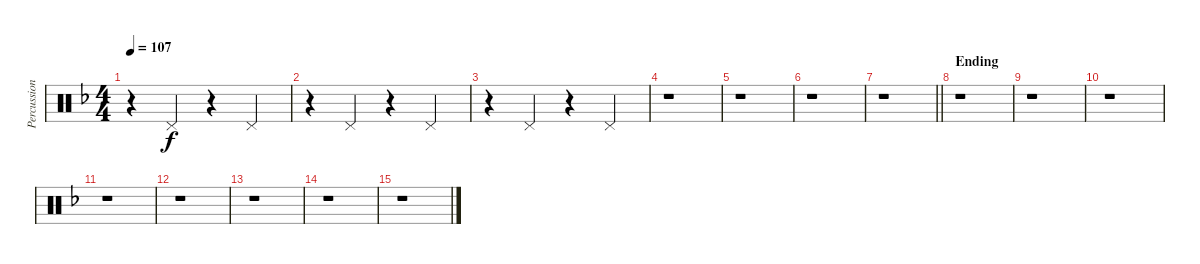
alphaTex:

\track ("Percussion" "Percussion") {instrument percussion}
\staff {score}
\articulation defaults
\ts (4 4)
\tempo 107
\clef neutral
\ks dminor
r.4{dy f} "Pedal Hi-Hat (hit)".4 r.4 "Pedal Hi-Hat (hit)".4 |
r.4 "Pedal Hi-Hat (hit)".4 r.4 "Pedal Hi-Hat (hit)".4 |
r.4 "Pedal Hi-Hat (hit)".4 r.4 "Pedal Hi-Hat (hit)".4 |
r.1 |
r.1 |
r.1 |
\barLineRight lightlight
r.1 |
\section ("" "Ending")
r.1 |
r.1 |
r.1 |
r.1 |
r.1 |
r.1 |
r.1 |
r.1
